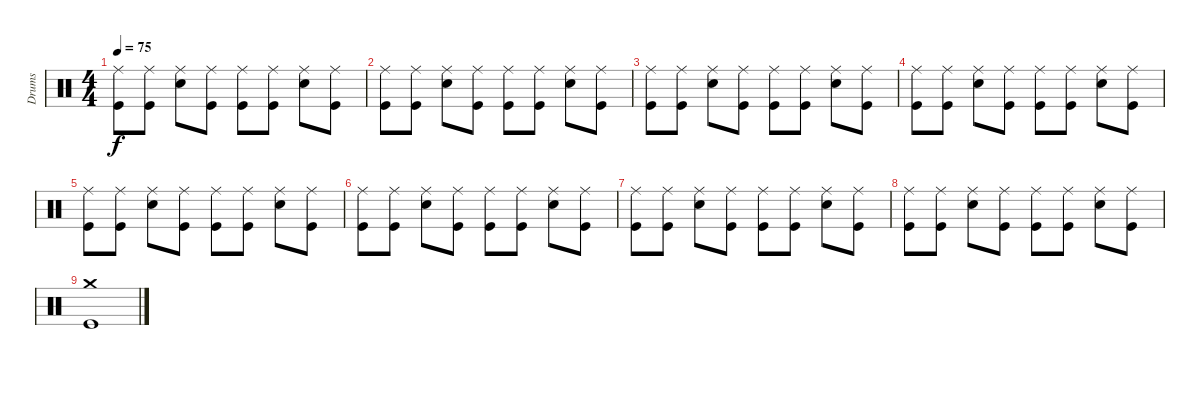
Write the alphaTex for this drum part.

\track ("Drums" "Drums") {instrument percussion}
\staff {score}
\articulation defaults
\ts (4 4)
\tempo 75
\clef neutral
\ks c
("Ride (middle)" "Kick (hit)").8{dy f} ("Ride (middle)" "Kick (hit)").8 ("Ride (middle)" "Snare (hit) 2").8 ("Ride (middle)" "Kick (hit)").8 ("Ride (middle)" "Kick (hit)").8 ("Ride (middle)" "Kick (hit)").8 ("Ride (middle)" "Snare (hit) 2").8 ("Ride (middle)" "Kick (hit)").8 |
("Ride (middle)" "Kick (hit)").8 ("Ride (middle)" "Kick (hit)").8 ("Ride (middle)" "Snare (hit) 2").8 ("Ride (middle)" "Kick (hit)").8 ("Ride (middle)" "Kick (hit)").8 ("Ride (middle)" "Kick (hit)").8 ("Ride (middle)" "Snare (hit) 2").8 ("Ride (middle)" "Kick (hit)").8 |
("Ride (middle)" "Kick (hit)").8 ("Ride (middle)" "Kick (hit)").8 ("Ride (middle)" "Snare (hit) 2").8 ("Ride (middle)" "Kick (hit)").8 ("Ride (middle)" "Kick (hit)").8 ("Ride (middle)" "Kick (hit)").8 ("Ride (middle)" "Snare (hit) 2").8 ("Ride (middle)" "Kick (hit)").8 |
("Ride (middle)" "Kick (hit)").8 ("Ride (middle)" "Kick (hit)").8 ("Ride (middle)" "Snare (hit) 2").8 ("Ride (middle)" "Kick (hit)").8 ("Ride (middle)" "Kick (hit)").8 ("Ride (middle)" "Kick (hit)").8 ("Ride (middle)" "Snare (hit) 2").8 ("Ride (middle)" "Kick (hit)").8 |
("Ride (middle)" "Kick (hit)").8 ("Ride (middle)" "Kick (hit)").8 ("Ride (middle)" "Snare (hit) 2").8 ("Ride (middle)" "Kick (hit)").8 ("Ride (middle)" "Kick (hit)").8 ("Ride (middle)" "Kick (hit)").8 ("Ride (middle)" "Snare (hit) 2").8 ("Ride (middle)" "Kick (hit)").8 |
("Ride (middle)" "Kick (hit)").8 ("Ride (middle)" "Kick (hit)").8 ("Ride (middle)" "Snare (hit) 2").8 ("Ride (middle)" "Kick (hit)").8 ("Ride (middle)" "Kick (hit)").8 ("Ride (middle)" "Kick (hit)").8 ("Ride (middle)" "Snare (hit) 2").8 ("Ride (middle)" "Kick (hit)").8 |
("Ride (middle)" "Kick (hit)").8 ("Ride (middle)" "Kick (hit)").8 ("Ride (middle)" "Snare (hit) 2").8 ("Ride (middle)" "Kick (hit)").8 ("Ride (middle)" "Kick (hit)").8 ("Ride (middle)" "Kick (hit)").8 ("Ride (middle)" "Snare (hit) 2").8 ("Ride (middle)" "Kick (hit)").8 |
("Ride (middle)" "Kick (hit)").8 ("Ride (middle)" "Kick (hit)").8 ("Ride (middle)" "Snare (hit) 2").8 ("Ride (middle)" "Kick (hit)").8 ("Ride (middle)" "Kick (hit)").8 ("Ride (middle)" "Kick (hit)").8 ("Ride (middle)" "Snare (hit) 2").8 ("Ride (middle)" "Kick (hit)").8 |
("Crash medium (hit)" "Kick (hit)").1
